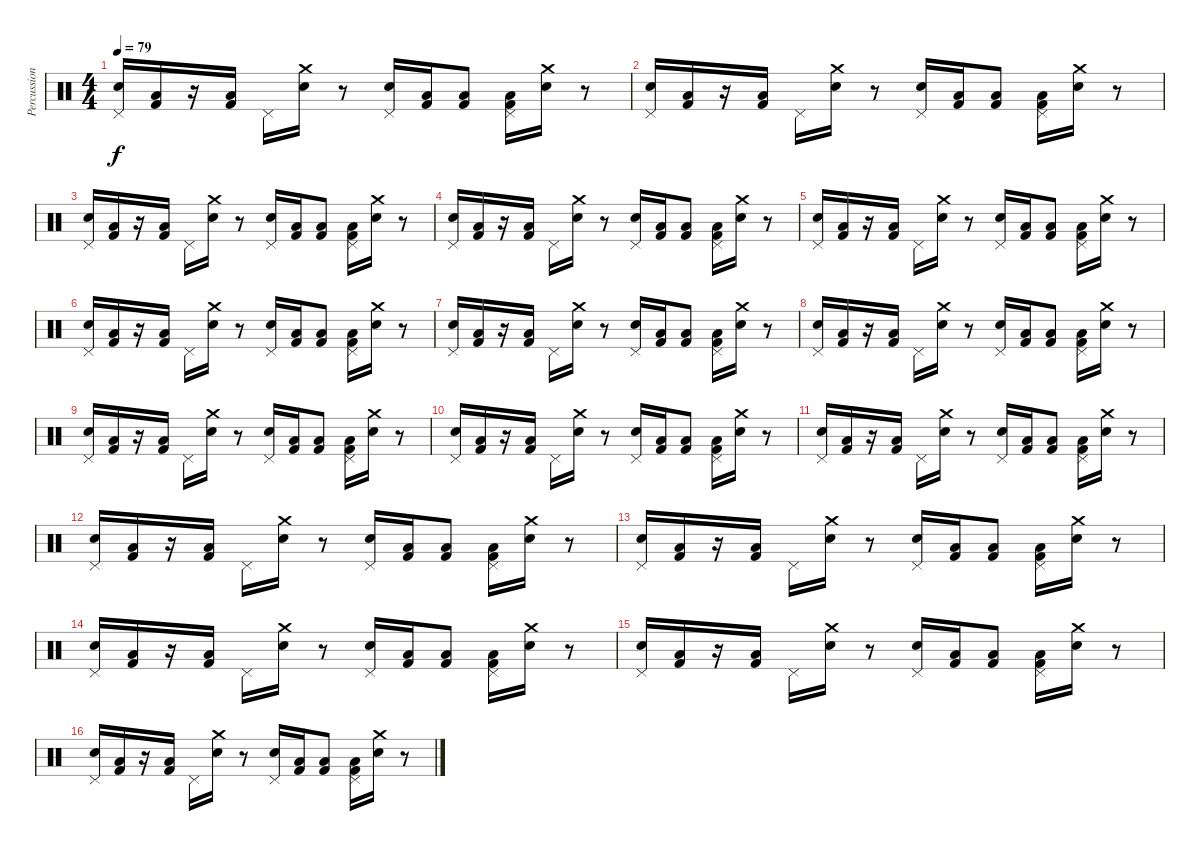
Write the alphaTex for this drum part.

\track ("Percussion" "Percussion") {instrument percussion}
\staff {score}
\articulation defaults
\ts (4 4)
\tempo 79
\clef neutral
\ks c
("Pedal Hi-Hat (hit)" "Electric Snare (hit)").16{dy f} ("Low Floor Tom (hit)" "Kick (hit) 2").16 r.16 ("Low Floor Tom (hit)" "Kick (hit) 2").16 "Pedal Hi-Hat (hit)".16 ("Crash medium (hit)" "Electric Snare (hit)").16 r.8 ("Pedal Hi-Hat (hit)" "Electric Snare (hit)").16 ("Low Floor Tom (hit)" "Kick (hit) 2").16 ("Low Floor Tom (hit)" "Kick (hit) 2").8 ("Pedal Hi-Hat (hit)" "Low Floor Tom (hit)" "Kick (hit) 2").16 ("Crash medium (hit)" "Electric Snare (hit)").16 r.8 |
("Pedal Hi-Hat (hit)" "Electric Snare (hit)").16 ("Low Floor Tom (hit)" "Kick (hit) 2").16 r.16 ("Low Floor Tom (hit)" "Kick (hit) 2").16 "Pedal Hi-Hat (hit)".16 ("Crash medium (hit)" "Electric Snare (hit)").16 r.8 ("Pedal Hi-Hat (hit)" "Electric Snare (hit)").16 ("Low Floor Tom (hit)" "Kick (hit) 2").16 ("Low Floor Tom (hit)" "Kick (hit) 2").8 ("Pedal Hi-Hat (hit)" "Low Floor Tom (hit)" "Kick (hit) 2").16 ("Crash medium (hit)" "Electric Snare (hit)").16 r.8 |
("Pedal Hi-Hat (hit)" "Electric Snare (hit)").16 ("Low Floor Tom (hit)" "Kick (hit) 2").16 r.16 ("Low Floor Tom (hit)" "Kick (hit) 2").16 "Pedal Hi-Hat (hit)".16 ("Crash medium (hit)" "Electric Snare (hit)").16 r.8 ("Pedal Hi-Hat (hit)" "Electric Snare (hit)").16 ("Low Floor Tom (hit)" "Kick (hit) 2").16 ("Low Floor Tom (hit)" "Kick (hit) 2").8 ("Pedal Hi-Hat (hit)" "Low Floor Tom (hit)" "Kick (hit) 2").16 ("Crash medium (hit)" "Electric Snare (hit)").16 r.8 |
("Pedal Hi-Hat (hit)" "Electric Snare (hit)").16 ("Low Floor Tom (hit)" "Kick (hit) 2").16 r.16 ("Low Floor Tom (hit)" "Kick (hit) 2").16 "Pedal Hi-Hat (hit)".16 ("Crash medium (hit)" "Electric Snare (hit)").16 r.8 ("Pedal Hi-Hat (hit)" "Electric Snare (hit)").16 ("Low Floor Tom (hit)" "Kick (hit) 2").16 ("Low Floor Tom (hit)" "Kick (hit) 2").8 ("Pedal Hi-Hat (hit)" "Low Floor Tom (hit)" "Kick (hit) 2").16 ("Crash medium (hit)" "Electric Snare (hit)").16 r.8 |
("Pedal Hi-Hat (hit)" "Electric Snare (hit)").16 ("Low Floor Tom (hit)" "Kick (hit) 2").16 r.16 ("Low Floor Tom (hit)" "Kick (hit) 2").16 "Pedal Hi-Hat (hit)".16 ("Crash medium (hit)" "Electric Snare (hit)").16 r.8 ("Pedal Hi-Hat (hit)" "Electric Snare (hit)").16 ("Low Floor Tom (hit)" "Kick (hit) 2").16 ("Low Floor Tom (hit)" "Kick (hit) 2").8 ("Pedal Hi-Hat (hit)" "Low Floor Tom (hit)" "Kick (hit) 2").16 ("Crash medium (hit)" "Electric Snare (hit)").16 r.8 |
("Pedal Hi-Hat (hit)" "Electric Snare (hit)").16 ("Low Floor Tom (hit)" "Kick (hit) 2").16 r.16 ("Low Floor Tom (hit)" "Kick (hit) 2").16 "Pedal Hi-Hat (hit)".16 ("Crash medium (hit)" "Electric Snare (hit)").16 r.8 ("Pedal Hi-Hat (hit)" "Electric Snare (hit)").16 ("Low Floor Tom (hit)" "Kick (hit) 2").16 ("Low Floor Tom (hit)" "Kick (hit) 2").8 ("Pedal Hi-Hat (hit)" "Low Floor Tom (hit)" "Kick (hit) 2").16 ("Crash medium (hit)" "Electric Snare (hit)").16 r.8 |
("Pedal Hi-Hat (hit)" "Electric Snare (hit)").16 ("Low Floor Tom (hit)" "Kick (hit) 2").16 r.16 ("Low Floor Tom (hit)" "Kick (hit) 2").16 "Pedal Hi-Hat (hit)".16 ("Crash medium (hit)" "Electric Snare (hit)").16 r.8 ("Pedal Hi-Hat (hit)" "Electric Snare (hit)").16 ("Low Floor Tom (hit)" "Kick (hit) 2").16 ("Low Floor Tom (hit)" "Kick (hit) 2").8 ("Pedal Hi-Hat (hit)" "Low Floor Tom (hit)" "Kick (hit) 2").16 ("Crash medium (hit)" "Electric Snare (hit)").16 r.8 |
("Pedal Hi-Hat (hit)" "Electric Snare (hit)").16 ("Low Floor Tom (hit)" "Kick (hit) 2").16 r.16 ("Low Floor Tom (hit)" "Kick (hit) 2").16 "Pedal Hi-Hat (hit)".16 ("Crash medium (hit)" "Electric Snare (hit)").16 r.8 ("Pedal Hi-Hat (hit)" "Electric Snare (hit)").16 ("Low Floor Tom (hit)" "Kick (hit) 2").16 ("Low Floor Tom (hit)" "Kick (hit) 2").8 ("Pedal Hi-Hat (hit)" "Low Floor Tom (hit)" "Kick (hit) 2").16 ("Crash medium (hit)" "Electric Snare (hit)").16 r.8 |
("Pedal Hi-Hat (hit)" "Electric Snare (hit)").16 ("Low Floor Tom (hit)" "Kick (hit) 2").16 r.16 ("Low Floor Tom (hit)" "Kick (hit) 2").16 "Pedal Hi-Hat (hit)".16 ("Crash medium (hit)" "Electric Snare (hit)").16 r.8 ("Pedal Hi-Hat (hit)" "Electric Snare (hit)").16 ("Low Floor Tom (hit)" "Kick (hit) 2").16 ("Low Floor Tom (hit)" "Kick (hit) 2").8 ("Pedal Hi-Hat (hit)" "Low Floor Tom (hit)" "Kick (hit) 2").16 ("Crash medium (hit)" "Electric Snare (hit)").16 r.8 |
("Pedal Hi-Hat (hit)" "Electric Snare (hit)").16 ("Low Floor Tom (hit)" "Kick (hit) 2").16 r.16 ("Low Floor Tom (hit)" "Kick (hit) 2").16 "Pedal Hi-Hat (hit)".16 ("Crash medium (hit)" "Electric Snare (hit)").16 r.8 ("Pedal Hi-Hat (hit)" "Electric Snare (hit)").16 ("Low Floor Tom (hit)" "Kick (hit) 2").16 ("Low Floor Tom (hit)" "Kick (hit) 2").8 ("Pedal Hi-Hat (hit)" "Low Floor Tom (hit)" "Kick (hit) 2").16 ("Crash medium (hit)" "Electric Snare (hit)").16 r.8 |
("Pedal Hi-Hat (hit)" "Electric Snare (hit)").16 ("Low Floor Tom (hit)" "Kick (hit) 2").16 r.16 ("Low Floor Tom (hit)" "Kick (hit) 2").16 "Pedal Hi-Hat (hit)".16 ("Crash medium (hit)" "Electric Snare (hit)").16 r.8 ("Pedal Hi-Hat (hit)" "Electric Snare (hit)").16 ("Low Floor Tom (hit)" "Kick (hit) 2").16 ("Low Floor Tom (hit)" "Kick (hit) 2").8 ("Pedal Hi-Hat (hit)" "Low Floor Tom (hit)" "Kick (hit) 2").16 ("Crash medium (hit)" "Electric Snare (hit)").16 r.8 |
("Pedal Hi-Hat (hit)" "Electric Snare (hit)").16 ("Low Floor Tom (hit)" "Kick (hit) 2").16 r.16 ("Low Floor Tom (hit)" "Kick (hit) 2").16 "Pedal Hi-Hat (hit)".16 ("Crash medium (hit)" "Electric Snare (hit)").16 r.8 ("Pedal Hi-Hat (hit)" "Electric Snare (hit)").16 ("Low Floor Tom (hit)" "Kick (hit) 2").16 ("Low Floor Tom (hit)" "Kick (hit) 2").8 ("Pedal Hi-Hat (hit)" "Low Floor Tom (hit)" "Kick (hit) 2").16 ("Crash medium (hit)" "Electric Snare (hit)").16 r.8 |
("Pedal Hi-Hat (hit)" "Electric Snare (hit)").16 ("Low Floor Tom (hit)" "Kick (hit) 2").16 r.16 ("Low Floor Tom (hit)" "Kick (hit) 2").16 "Pedal Hi-Hat (hit)".16 ("Crash medium (hit)" "Electric Snare (hit)").16 r.8 ("Pedal Hi-Hat (hit)" "Electric Snare (hit)").16 ("Low Floor Tom (hit)" "Kick (hit) 2").16 ("Low Floor Tom (hit)" "Kick (hit) 2").8 ("Pedal Hi-Hat (hit)" "Low Floor Tom (hit)" "Kick (hit) 2").16 ("Crash medium (hit)" "Electric Snare (hit)").16 r.8 |
("Pedal Hi-Hat (hit)" "Electric Snare (hit)").16 ("Low Floor Tom (hit)" "Kick (hit) 2").16 r.16 ("Low Floor Tom (hit)" "Kick (hit) 2").16 "Pedal Hi-Hat (hit)".16 ("Crash medium (hit)" "Electric Snare (hit)").16 r.8 ("Pedal Hi-Hat (hit)" "Electric Snare (hit)").16 ("Low Floor Tom (hit)" "Kick (hit) 2").16 ("Low Floor Tom (hit)" "Kick (hit) 2").8 ("Pedal Hi-Hat (hit)" "Low Floor Tom (hit)" "Kick (hit) 2").16 ("Crash medium (hit)" "Electric Snare (hit)").16 r.8 |
("Pedal Hi-Hat (hit)" "Electric Snare (hit)").16 ("Low Floor Tom (hit)" "Kick (hit) 2").16 r.16 ("Low Floor Tom (hit)" "Kick (hit) 2").16 "Pedal Hi-Hat (hit)".16 ("Crash medium (hit)" "Electric Snare (hit)").16 r.8 ("Pedal Hi-Hat (hit)" "Electric Snare (hit)").16 ("Low Floor Tom (hit)" "Kick (hit) 2").16 ("Low Floor Tom (hit)" "Kick (hit) 2").8 ("Pedal Hi-Hat (hit)" "Low Floor Tom (hit)" "Kick (hit) 2").16 ("Crash medium (hit)" "Electric Snare (hit)").16 r.8 |
("Pedal Hi-Hat (hit)" "Electric Snare (hit)").16 ("Low Floor Tom (hit)" "Kick (hit) 2").16 r.16 ("Low Floor Tom (hit)" "Kick (hit) 2").16 "Pedal Hi-Hat (hit)".16 ("Crash medium (hit)" "Electric Snare (hit)").16 r.8 ("Pedal Hi-Hat (hit)" "Electric Snare (hit)").16 ("Low Floor Tom (hit)" "Kick (hit) 2").16 ("Low Floor Tom (hit)" "Kick (hit) 2").8 ("Pedal Hi-Hat (hit)" "Low Floor Tom (hit)" "Kick (hit) 2").16 ("Crash medium (hit)" "Electric Snare (hit)").16 r.8
